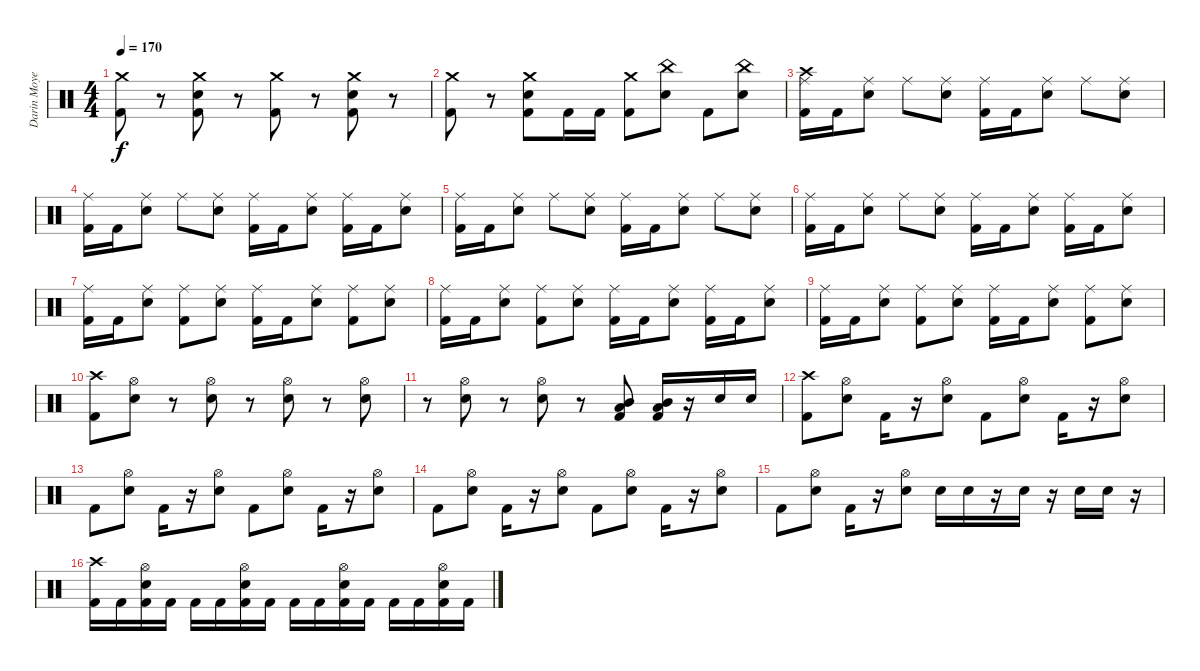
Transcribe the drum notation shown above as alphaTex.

\track ("Darin Moyen" "Darin Moye") {instrument percussion}
\staff {score}
\articulation defaults
\ts (4 4)
\tempo 170
\clef neutral
\ks c
("Crash medium (hit)" "Kick (hit) 2").8{dy f} r.8 ("Crash medium (hit)" "Electric Snare (hit)" "Kick (hit) 2").8 r.8 ("Crash medium (hit)" "Kick (hit) 2").8 r.8 ("Crash medium (hit)" "Electric Snare (hit)" "Kick (hit) 2").8 r.8 |
("Crash medium (hit)" "Kick (hit) 2").8 r.8 ("Crash medium (hit)" "Electric Snare (hit)" "Kick (hit) 2").8 "Kick (hit) 2".16 "Kick (hit) 2".16 ("Crash medium (hit)" "Kick (hit) 2").8 ("China (hit)" "Electric Snare (hit)").8 "Kick (hit) 2".8 ("China (hit)" "Electric Snare (hit)").8 |
("Crash high (hit)" "Ride (middle)" "Kick (hit) 2").16 "Kick (hit) 2".16 ("Ride (middle)" "Electric Snare (hit)").8 "Ride (middle)".8 ("Ride (middle)" "Electric Snare (hit)").8 ("Ride (middle)" "Kick (hit) 2").16 "Kick (hit) 2".16 ("Ride (middle)" "Electric Snare (hit)").8 "Ride (middle)".8 ("Ride (middle)" "Electric Snare (hit)").8 |
("Ride (middle)" "Kick (hit) 2").16 "Kick (hit) 2".16 ("Ride (middle)" "Electric Snare (hit)").8 "Ride (middle)".8 ("Ride (middle)" "Electric Snare (hit)").8 ("Ride (middle)" "Kick (hit) 2").16 "Kick (hit) 2".16 ("Ride (middle)" "Electric Snare (hit)").8 ("Ride (middle)" "Kick (hit) 2").16 "Kick (hit) 2".16 ("Ride (middle)" "Electric Snare (hit)").8 |
("Ride (middle)" "Kick (hit) 2").16 "Kick (hit) 2".16 ("Ride (middle)" "Electric Snare (hit)").8 "Ride (middle)".8 ("Ride (middle)" "Electric Snare (hit)").8 ("Ride (middle)" "Kick (hit) 2").16 "Kick (hit) 2".16 ("Ride (middle)" "Electric Snare (hit)").8 "Ride (middle)".8 ("Ride (middle)" "Electric Snare (hit)").8 |
("Ride (middle)" "Kick (hit) 2").16 "Kick (hit) 2".16 ("Ride (middle)" "Electric Snare (hit)").8 "Ride (middle)".8 ("Ride (middle)" "Electric Snare (hit)").8 ("Ride (middle)" "Kick (hit) 2").16 "Kick (hit) 2".16 ("Ride (middle)" "Electric Snare (hit)").8 ("Ride (middle)" "Kick (hit) 2").16 "Kick (hit) 2".16 ("Ride (middle)" "Electric Snare (hit)").8 |
("Ride (middle)" "Kick (hit) 2").16 "Kick (hit) 2".16 ("Ride (middle)" "Electric Snare (hit)").8 ("Ride (middle)" "Kick (hit) 2").8 ("Ride (middle)" "Electric Snare (hit)").8 ("Ride (middle)" "Kick (hit) 2").16 "Kick (hit) 2".16 ("Ride (middle)" "Electric Snare (hit)").8 ("Ride (middle)" "Kick (hit) 2").8 ("Ride (middle)" "Electric Snare (hit)").8 |
("Ride (middle)" "Kick (hit) 2").16 "Kick (hit) 2".16 ("Ride (middle)" "Electric Snare (hit)").8 ("Ride (middle)" "Kick (hit) 2").8 ("Ride (middle)" "Electric Snare (hit)").8 ("Ride (middle)" "Kick (hit) 2").16 "Kick (hit) 2".16 ("Ride (middle)" "Electric Snare (hit)").8 ("Ride (middle)" "Kick (hit) 2").16 "Kick (hit) 2".16 ("Ride (middle)" "Electric Snare (hit)").8 |
("Ride (middle)" "Kick (hit) 2").16 "Kick (hit) 2".16 ("Ride (middle)" "Electric Snare (hit)").8 ("Ride (middle)" "Kick (hit) 2").8 ("Ride (middle)" "Electric Snare (hit)").8 ("Ride (middle)" "Kick (hit) 2").16 "Kick (hit) 2".16 ("Ride (middle)" "Electric Snare (hit)").8 ("Ride (middle)" "Kick (hit) 2").8 ("Ride (middle)" "Electric Snare (hit)").8 |
("Crash high (hit)" "Kick (hit) 2").8 ("Hi-Hat (open)" "Electric Snare (hit)").8 r.8 ("Hi-Hat (open)" "Electric Snare (hit)").8 r.8 ("Hi-Hat (open)" "Electric Snare (hit)").8 r.8 ("Hi-Hat (open)" "Electric Snare (hit)").8 |
r.8 ("Hi-Hat (open)" "Electric Snare (hit)").8 r.8 ("Hi-Hat (open)" "Electric Snare (hit)").8 r.8 ("Mid Tom (hit)" "Low Tom (hit)" "Kick (hit) 2").8 ("Mid Tom (hit)" "Low Tom (hit)" "Kick (hit) 2").16 r.16 "Electric Snare (hit)".16 "Electric Snare (hit)".16 |
("Crash high (hit)" "Kick (hit) 2").8 ("Hi-Hat (open)" "Electric Snare (hit)").8 "Kick (hit) 2".16 r.16 ("Hi-Hat (open)" "Electric Snare (hit)").8 "Kick (hit) 2".8 ("Hi-Hat (open)" "Electric Snare (hit)").8 "Kick (hit) 2".16 r.16 ("Hi-Hat (open)" "Electric Snare (hit)").8 |
"Kick (hit) 2".8 ("Hi-Hat (open)" "Electric Snare (hit)").8 "Kick (hit) 2".16 r.16 ("Hi-Hat (open)" "Electric Snare (hit)").8 "Kick (hit) 2".8 ("Hi-Hat (open)" "Electric Snare (hit)").8 "Kick (hit) 2".16 r.16 ("Hi-Hat (open)" "Electric Snare (hit)").8 |
"Kick (hit) 2".8 ("Hi-Hat (open)" "Electric Snare (hit)").8 "Kick (hit) 2".16 r.16 ("Hi-Hat (open)" "Electric Snare (hit)").8 "Kick (hit) 2".8 ("Hi-Hat (open)" "Electric Snare (hit)").8 "Kick (hit) 2".16 r.16 ("Hi-Hat (open)" "Electric Snare (hit)").8 |
"Kick (hit) 2".8 ("Hi-Hat (open)" "Electric Snare (hit)").8 "Kick (hit) 2".16 r.16 ("Hi-Hat (open)" "Electric Snare (hit)").8 "Electric Snare (hit)".16 "Electric Snare (hit)".16 r.16 "Electric Snare (hit)".16 r.16 "Electric Snare (hit)".16 "Electric Snare (hit)".16 r.16 |
("Crash high (hit)" "Kick (hit) 2").16 "Kick (hit) 2".16 ("Hi-Hat (open)" "Electric Snare (hit)" "Kick (hit) 2").16 "Kick (hit) 2".16 "Kick (hit) 2".16 "Kick (hit) 2".16 ("Hi-Hat (open)" "Electric Snare (hit)" "Kick (hit) 2").16 "Kick (hit) 2".16 "Kick (hit) 2".16 "Kick (hit) 2".16 ("Hi-Hat (open)" "Electric Snare (hit)" "Kick (hit) 2").16 "Kick (hit) 2".16 "Kick (hit) 2".16 "Kick (hit) 2".16 ("Hi-Hat (open)" "Electric Snare (hit)" "Kick (hit) 2").16 "Kick (hit) 2".16
